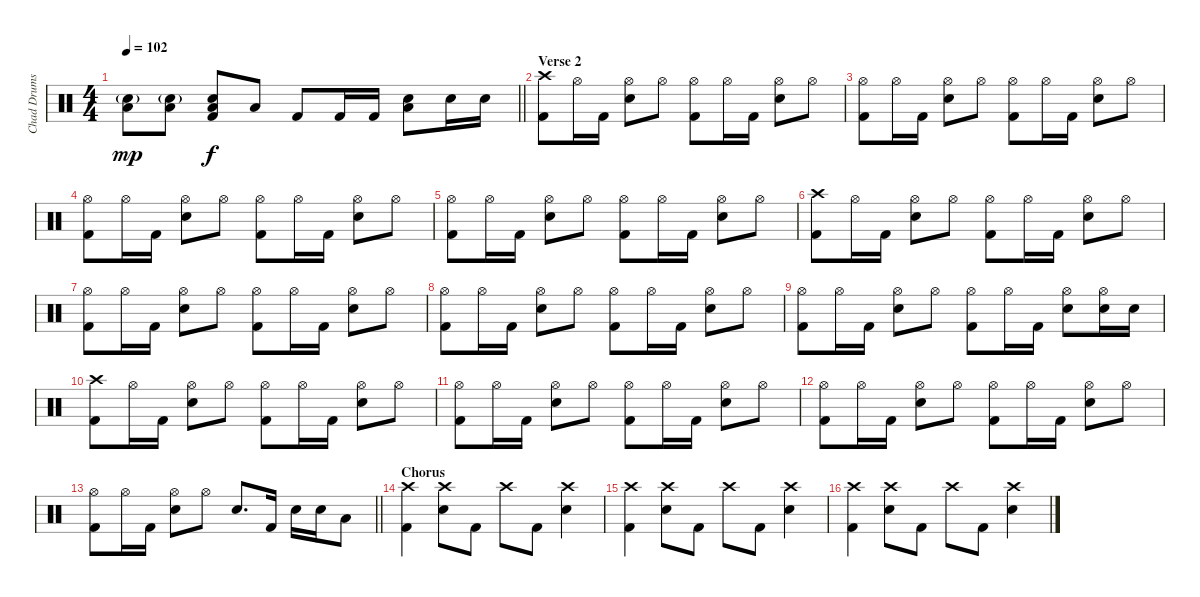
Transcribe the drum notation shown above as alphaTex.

\track ("Chad Drums)" "Chad Drums") {instrument percussion}
\staff {score}
\articulation defaults
\ts (4 4)
\tempo 102
\clef neutral
\barLineRight lightlight
\ks c
("Snare (hit) 2"{g} "Low Floor Tom (hit)").8{dy mp} ("Snare (hit) 2"{g} "Low Floor Tom (hit)").8 ("Snare (hit) 2" "Low Floor Tom (hit)" "Kick (hit) 2").8{dy f} "Low Floor Tom (hit)".8 "Kick (hit) 2".8 "Kick (hit) 2".16 "Kick (hit) 2".16 ("Snare (hit) 2" "Low Floor Tom (hit)").8 "Snare (hit) 2".16 "Snare (hit) 2".16 |
\section ("" "Verse 2")
("Crash high (hit)" "Kick (hit) 2").8 "Hi-Hat (open)".16 "Kick (hit) 2".16 ("Hi-Hat (open)" "Snare (hit) 2").8 "Hi-Hat (open)".8 ("Hi-Hat (open)" "Kick (hit) 2").8 "Hi-Hat (open)".16 "Kick (hit) 2".16 ("Hi-Hat (open)" "Snare (hit) 2").8 "Hi-Hat (open)".8 |
("Hi-Hat (open)" "Kick (hit) 2").8 "Hi-Hat (open)".16 "Kick (hit) 2".16 ("Hi-Hat (open)" "Snare (hit) 2").8 "Hi-Hat (open)".8 ("Hi-Hat (open)" "Kick (hit) 2").8 "Hi-Hat (open)".16 "Kick (hit) 2".16 ("Hi-Hat (open)" "Snare (hit) 2").8 "Hi-Hat (open)".8 |
("Hi-Hat (open)" "Kick (hit) 2").8 "Hi-Hat (open)".16 "Kick (hit) 2".16 ("Hi-Hat (open)" "Snare (hit) 2").8 "Hi-Hat (open)".8 ("Hi-Hat (open)" "Kick (hit) 2").8 "Hi-Hat (open)".16 "Kick (hit) 2".16 ("Hi-Hat (open)" "Snare (hit) 2").8 "Hi-Hat (open)".8 |
("Hi-Hat (open)" "Kick (hit) 2").8 "Hi-Hat (open)".16 "Kick (hit) 2".16 ("Hi-Hat (open)" "Snare (hit) 2").8 "Hi-Hat (open)".8 ("Hi-Hat (open)" "Kick (hit) 2").8 "Hi-Hat (open)".16 "Kick (hit) 2".16 ("Hi-Hat (open)" "Snare (hit) 2").8 "Hi-Hat (open)".8 |
("Crash high (hit)" "Kick (hit) 2").8 "Hi-Hat (open)".16 "Kick (hit) 2".16 ("Hi-Hat (open)" "Snare (hit) 2").8 "Hi-Hat (open)".8 ("Hi-Hat (open)" "Kick (hit) 2").8 "Hi-Hat (open)".16 "Kick (hit) 2".16 ("Hi-Hat (open)" "Snare (hit) 2").8 "Hi-Hat (open)".8 |
("Hi-Hat (open)" "Kick (hit) 2").8 "Hi-Hat (open)".16 "Kick (hit) 2".16 ("Hi-Hat (open)" "Snare (hit) 2").8 "Hi-Hat (open)".8 ("Hi-Hat (open)" "Kick (hit) 2").8 "Hi-Hat (open)".16 "Kick (hit) 2".16 ("Hi-Hat (open)" "Snare (hit) 2").8 "Hi-Hat (open)".8 |
("Hi-Hat (open)" "Kick (hit) 2").8 "Hi-Hat (open)".16 "Kick (hit) 2".16 ("Hi-Hat (open)" "Snare (hit) 2").8 "Hi-Hat (open)".8 ("Hi-Hat (open)" "Kick (hit) 2").8 "Hi-Hat (open)".16 "Kick (hit) 2".16 ("Hi-Hat (open)" "Snare (hit) 2").8 "Hi-Hat (open)".8 |
("Hi-Hat (open)" "Kick (hit) 2").8 "Hi-Hat (open)".16 "Kick (hit) 2".16 ("Hi-Hat (open)" "Snare (hit) 2").8 "Hi-Hat (open)".8 ("Hi-Hat (open)" "Kick (hit) 2").8 "Hi-Hat (open)".16 "Kick (hit) 2".16 ("Hi-Hat (open)" "Snare (hit) 2").8 ("Hi-Hat (open)" "Snare (hit) 2").16 "Snare (hit) 2".16 |
("Crash high (hit)" "Kick (hit) 2").8 "Hi-Hat (open)".16 "Kick (hit) 2".16 ("Hi-Hat (open)" "Snare (hit) 2").8 "Hi-Hat (open)".8 ("Hi-Hat (open)" "Kick (hit) 2").8 "Hi-Hat (open)".16 "Kick (hit) 2".16 ("Hi-Hat (open)" "Snare (hit) 2").8 "Hi-Hat (open)".8 |
("Hi-Hat (open)" "Kick (hit) 2").8 "Hi-Hat (open)".16 "Kick (hit) 2".16 ("Hi-Hat (open)" "Snare (hit) 2").8 "Hi-Hat (open)".8 ("Hi-Hat (open)" "Kick (hit) 2").8 "Hi-Hat (open)".16 "Kick (hit) 2".16 ("Hi-Hat (open)" "Snare (hit) 2").8 "Hi-Hat (open)".8 |
("Hi-Hat (open)" "Kick (hit) 2").8 "Hi-Hat (open)".16 "Kick (hit) 2".16 ("Hi-Hat (open)" "Snare (hit) 2").8 "Hi-Hat (open)".8 ("Hi-Hat (open)" "Kick (hit) 2").8 "Hi-Hat (open)".16 "Kick (hit) 2".16 ("Hi-Hat (open)" "Snare (hit) 2").8 "Hi-Hat (open)".8 |
\barLineRight lightlight
("Hi-Hat (open)" "Kick (hit) 2").8 "Hi-Hat (open)".16 "Kick (hit) 2".16 ("Hi-Hat (open)" "Snare (hit) 2").8 "Hi-Hat (open)".8 "Snare (hit) 2".8{d} "Kick (hit) 2".16 "Snare (hit) 2".16 "Snare (hit) 2".16 "Low Tom (hit)".8 |
\section ("" "Chorus")
("Crash high (hit)" "Kick (hit) 2").4 ("Crash high (hit)" "Snare (hit) 2").8 "Kick (hit) 2".8 "Crash high (hit)".8 "Kick (hit) 2".8 ("Crash high (hit)" "Snare (hit) 2").4 |
("Crash high (hit)" "Kick (hit) 2").4 ("Crash high (hit)" "Snare (hit) 2").8 "Kick (hit) 2".8 "Crash high (hit)".8 "Kick (hit) 2".8 ("Crash high (hit)" "Snare (hit) 2").4 |
("Crash high (hit)" "Kick (hit) 2").4 ("Crash high (hit)" "Snare (hit) 2").8 "Kick (hit) 2".8 "Crash high (hit)".8 "Kick (hit) 2".8 ("Crash high (hit)" "Snare (hit) 2").4
